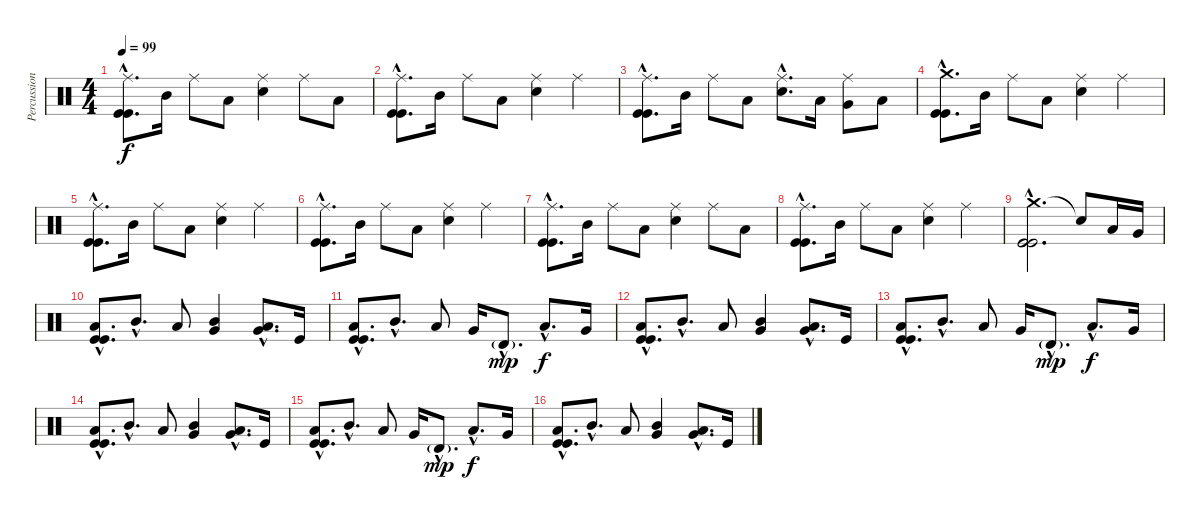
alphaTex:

\track ("Percussions2" "Percussion") {instrument percussion}
\staff {score}
\articulation defaults
\ts (4 4)
\tempo 99
\clef neutral
\ks c
("Ride (middle)"{hac} "Kick (hit)"{hac} "Kick (hit)"{hac}).8{d dy f} "Mid Tom (hit)".16 "Ride (middle)".8 "Low Tom (hit)".8 ("Electric Snare (hit)" "Ride (middle)").4 "Ride (middle)".8 "Low Tom (hit)".8 |
("Ride (middle)"{hac} "Kick (hit)"{hac} "Kick (hit)"{hac}).8{d} "Mid Tom (hit)".16 "Ride (middle)".8 "Low Tom (hit)".8 ("Electric Snare (hit)" "Ride (middle)").4 "Ride (middle)".4 |
("Ride (middle)"{hac} "Kick (hit)"{hac} "Kick (hit)"{hac}).8{d} "Mid Tom (hit)".16 "Ride (middle)".8 "Low Tom (hit)".8 ("Electric Snare (hit)"{hac} "Ride (middle)"{hac}).8{d} "Low Tom (hit)".16 ("Very Low Tom (hit)" "Ride (middle)").8 "Low Floor Tom (hit)".8 |
("Crash medium (hit)"{hac} "Kick (hit)"{hac} "Kick (hit)"{hac}).8{d} "Mid Tom (hit)".16 "Ride (middle)".8 "Low Tom (hit)".8 ("Electric Snare (hit)" "Ride (middle)").4 "Ride (middle)".4 |
("Ride (middle)"{hac} "Kick (hit)"{hac} "Kick (hit)"{hac}).8{d} "Mid Tom (hit)".16 "Ride (middle)".8 "Low Tom (hit)".8 ("Electric Snare (hit)" "Ride (middle)").4 "Ride (middle)".4 |
("Ride (middle)"{hac} "Kick (hit)"{hac} "Kick (hit)"{hac}).8{d} "Mid Tom (hit)".16 "Ride (middle)".8 "Low Tom (hit)".8 ("Electric Snare (hit)" "Ride (middle)").4 "Ride (middle)".4 |
("Ride (middle)"{hac} "Kick (hit)"{hac} "Kick (hit)"{hac}).8{d} "Mid Tom (hit)".16 "Ride (middle)".8 "Low Tom (hit)".8 ("Electric Snare (hit)" "Ride (middle)").4 "Ride (middle)".8 "Low Tom (hit)".8 |
("Ride (middle)"{hac} "Kick (hit)"{hac} "Kick (hit)"{hac}).8{d} "Mid Tom (hit)".16 "Ride (middle)".8 "Low Tom (hit)".8 ("Electric Snare (hit)" "Ride (middle)").4 "Ride (middle)".4 |
("Crash medium (hit)"{hac} "Kick (hit)"{hac} "Kick (hit)"{hac} "Kick (hit)"{hac}).2{d} "Snare (hit)"{t}.8 "Low Tom (hit)".16 "Very Low Tom (hit)".16 |
("Low Floor Tom (hit)"{hac} "Kick (hit)"{hac} "Kick (hit)"{hac}).8{d} "Mid Tom (hit)"{hac}.8{d} "Low Tom (hit)".8 ("Very Low Tom (hit)" "Mid Tom (hit)").4 ("Very Low Tom (hit)"{hac} "Low Floor Tom (hit)"{hac}).8{d} "Kick (hit)".16 |
("Low Floor Tom (hit)"{hac} "Kick (hit)"{hac} "Kick (hit)"{hac}).8{d} "Mid Tom (hit)"{hac}.8{d} "Low Tom (hit)".8 "Very Low Tom (hit)".16 "Timbale high (hit)"{g hac}.8{d dy mp} "Low Floor Tom (hit)"{hac}.8{d dy f} "Very Low Tom (hit)".16 |
("Low Floor Tom (hit)"{hac} "Kick (hit)"{hac} "Kick (hit)"{hac}).8{d} "Mid Tom (hit)"{hac}.8{d} "Low Tom (hit)".8 ("Very Low Tom (hit)" "Mid Tom (hit)").4 ("Very Low Tom (hit)"{hac} "Low Floor Tom (hit)"{hac}).8{d} "Kick (hit)".16 |
("Low Floor Tom (hit)"{hac} "Kick (hit)"{hac} "Kick (hit)"{hac}).8{d} "Mid Tom (hit)"{hac}.8{d} "Low Tom (hit)".8 "Very Low Tom (hit)".16 "Timbale high (hit)"{g hac}.8{d dy mp} "Low Floor Tom (hit)"{hac}.8{d dy f} "Very Low Tom (hit)".16 |
("Low Floor Tom (hit)"{hac} "Kick (hit)"{hac} "Kick (hit)"{hac}).8{d} "Mid Tom (hit)"{hac}.8{d} "Low Tom (hit)".8 ("Very Low Tom (hit)" "Mid Tom (hit)").4 ("Very Low Tom (hit)"{hac} "Low Floor Tom (hit)"{hac}).8{d} "Kick (hit)".16 |
("Low Floor Tom (hit)"{hac} "Kick (hit)"{hac} "Kick (hit)"{hac}).8{d} "Mid Tom (hit)"{hac}.8{d} "Low Tom (hit)".8 "Very Low Tom (hit)".16 "Timbale high (hit)"{g hac}.8{d dy mp} "Low Floor Tom (hit)"{hac}.8{d dy f} "Very Low Tom (hit)".16 |
("Low Floor Tom (hit)"{hac} "Kick (hit)"{hac} "Kick (hit)"{hac}).8{d} "Mid Tom (hit)"{hac}.8{d} "Low Tom (hit)".8 ("Very Low Tom (hit)" "Mid Tom (hit)").4 ("Very Low Tom (hit)"{hac} "Low Floor Tom (hit)"{hac}).8{d} "Kick (hit)".16
